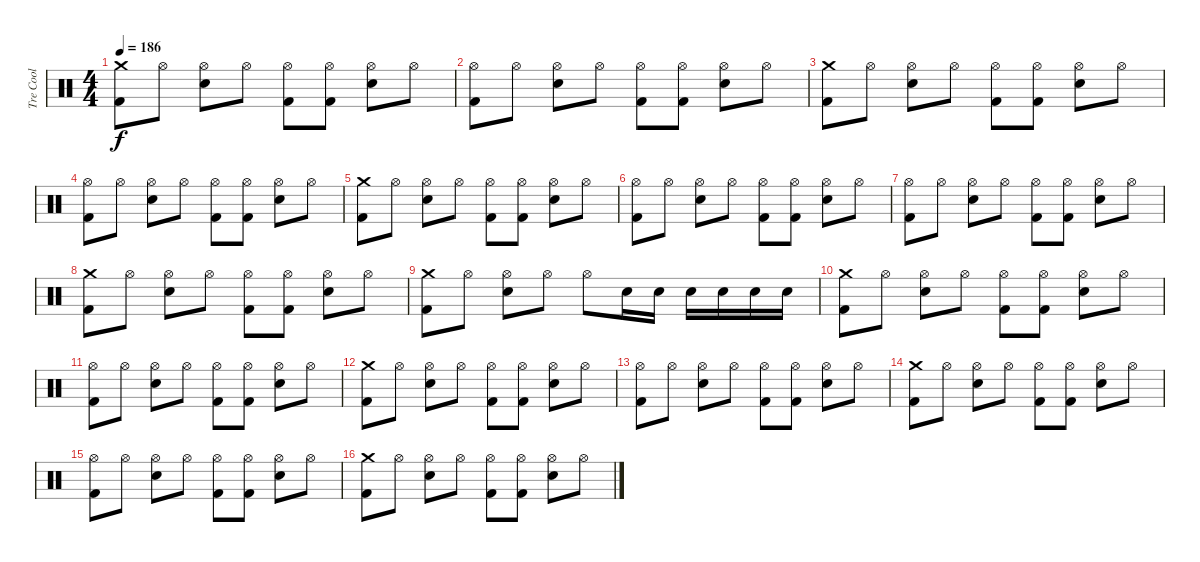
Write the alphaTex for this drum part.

\track ("Tre Cool" "Tre Cool") {instrument percussion}
\staff {score}
\articulation defaults
\ts (4 4)
\tempo 186
\clef neutral
\ks c
("Crash medium (hit)" "Kick (hit) 2").8{dy f} "Hi-Hat (open)".8 ("Hi-Hat (open)" "Snare (hit) 2").8 "Hi-Hat (open)".8 ("Hi-Hat (open)" "Kick (hit) 2").8 ("Hi-Hat (open)" "Kick (hit) 2").8 ("Hi-Hat (open)" "Snare (hit) 2").8 "Hi-Hat (open)".8 |
("Hi-Hat (open)" "Kick (hit) 2").8 "Hi-Hat (open)".8 ("Hi-Hat (open)" "Snare (hit) 2").8 "Hi-Hat (open)".8 ("Hi-Hat (open)" "Kick (hit) 2").8 ("Hi-Hat (open)" "Kick (hit) 2").8 ("Hi-Hat (open)" "Snare (hit) 2").8 "Hi-Hat (open)".8 |
("Crash medium (hit)" "Kick (hit) 2").8 "Hi-Hat (open)".8 ("Hi-Hat (open)" "Snare (hit) 2").8 "Hi-Hat (open)".8 ("Hi-Hat (open)" "Kick (hit) 2").8 ("Hi-Hat (open)" "Kick (hit) 2").8 ("Hi-Hat (open)" "Snare (hit) 2").8 "Hi-Hat (open)".8 |
("Hi-Hat (open)" "Kick (hit) 2").8 "Hi-Hat (open)".8 ("Hi-Hat (open)" "Snare (hit) 2").8 "Hi-Hat (open)".8 ("Hi-Hat (open)" "Kick (hit) 2").8 ("Hi-Hat (open)" "Kick (hit) 2").8 ("Hi-Hat (open)" "Snare (hit) 2").8 "Hi-Hat (open)".8 |
("Crash medium (hit)" "Kick (hit) 2").8 "Hi-Hat (open)".8 ("Hi-Hat (open)" "Snare (hit) 2").8 "Hi-Hat (open)".8 ("Hi-Hat (open)" "Kick (hit) 2").8 ("Hi-Hat (open)" "Kick (hit) 2").8 ("Hi-Hat (open)" "Snare (hit) 2").8 "Hi-Hat (open)".8 |
("Hi-Hat (open)" "Kick (hit) 2").8 "Hi-Hat (open)".8 ("Hi-Hat (open)" "Snare (hit) 2").8 "Hi-Hat (open)".8 ("Hi-Hat (open)" "Kick (hit) 2").8 ("Hi-Hat (open)" "Kick (hit) 2").8 ("Hi-Hat (open)" "Snare (hit) 2").8 "Hi-Hat (open)".8 |
("Hi-Hat (open)" "Kick (hit) 2").8 "Hi-Hat (open)".8 ("Hi-Hat (open)" "Snare (hit) 2").8 "Hi-Hat (open)".8 ("Hi-Hat (open)" "Kick (hit) 2").8 ("Hi-Hat (open)" "Kick (hit) 2").8 ("Hi-Hat (open)" "Snare (hit) 2").8 "Hi-Hat (open)".8 |
("Crash medium (hit)" "Kick (hit) 2").8 "Hi-Hat (open)".8 ("Hi-Hat (open)" "Snare (hit) 2").8 "Hi-Hat (open)".8 ("Hi-Hat (open)" "Kick (hit) 2").8 ("Hi-Hat (open)" "Kick (hit) 2").8 ("Hi-Hat (open)" "Snare (hit) 2").8 "Hi-Hat (open)".8 |
("Crash medium (hit)" "Kick (hit) 2").8 "Hi-Hat (open)".8 ("Hi-Hat (open)" "Snare (hit) 2").8 "Hi-Hat (open)".8 "Hi-Hat (open)".8 "Electric Snare (hit)".16 "Electric Snare (hit)".16 "Electric Snare (hit)".16 "Electric Snare (hit)".16 "Electric Snare (hit)".16 "Electric Snare (hit)".16 |
("Crash medium (hit)" "Kick (hit) 2").8 "Hi-Hat (open)".8 ("Hi-Hat (open)" "Snare (hit) 2").8 "Hi-Hat (open)".8 ("Hi-Hat (open)" "Kick (hit) 2").8 ("Hi-Hat (open)" "Kick (hit) 2").8 ("Hi-Hat (open)" "Snare (hit) 2").8 "Hi-Hat (open)".8 |
("Hi-Hat (open)" "Kick (hit) 2").8 "Hi-Hat (open)".8 ("Hi-Hat (open)" "Snare (hit) 2").8 "Hi-Hat (open)".8 ("Hi-Hat (open)" "Kick (hit) 2").8 ("Hi-Hat (open)" "Kick (hit) 2").8 ("Hi-Hat (open)" "Snare (hit) 2").8 "Hi-Hat (open)".8 |
("Crash medium (hit)" "Kick (hit) 2").8 "Hi-Hat (open)".8 ("Hi-Hat (open)" "Snare (hit) 2").8 "Hi-Hat (open)".8 ("Hi-Hat (open)" "Kick (hit) 2").8 ("Hi-Hat (open)" "Kick (hit) 2").8 ("Hi-Hat (open)" "Snare (hit) 2").8 "Hi-Hat (open)".8 |
("Hi-Hat (open)" "Kick (hit) 2").8 "Hi-Hat (open)".8 ("Hi-Hat (open)" "Snare (hit) 2").8 "Hi-Hat (open)".8 ("Hi-Hat (open)" "Kick (hit) 2").8 ("Hi-Hat (open)" "Kick (hit) 2").8 ("Hi-Hat (open)" "Snare (hit) 2").8 "Hi-Hat (open)".8 |
("Crash medium (hit)" "Kick (hit) 2").8 "Hi-Hat (open)".8 ("Hi-Hat (open)" "Snare (hit) 2").8 "Hi-Hat (open)".8 ("Hi-Hat (open)" "Kick (hit) 2").8 ("Hi-Hat (open)" "Kick (hit) 2").8 ("Hi-Hat (open)" "Snare (hit) 2").8 "Hi-Hat (open)".8 |
("Hi-Hat (open)" "Kick (hit) 2").8 "Hi-Hat (open)".8 ("Hi-Hat (open)" "Snare (hit) 2").8 "Hi-Hat (open)".8 ("Hi-Hat (open)" "Kick (hit) 2").8 ("Hi-Hat (open)" "Kick (hit) 2").8 ("Hi-Hat (open)" "Snare (hit) 2").8 "Hi-Hat (open)".8 |
("Crash medium (hit)" "Kick (hit) 2").8 "Hi-Hat (open)".8 ("Hi-Hat (open)" "Snare (hit) 2").8 "Hi-Hat (open)".8 ("Hi-Hat (open)" "Kick (hit) 2").8 ("Hi-Hat (open)" "Kick (hit) 2").8 ("Hi-Hat (open)" "Snare (hit) 2").8 "Hi-Hat (open)".8
